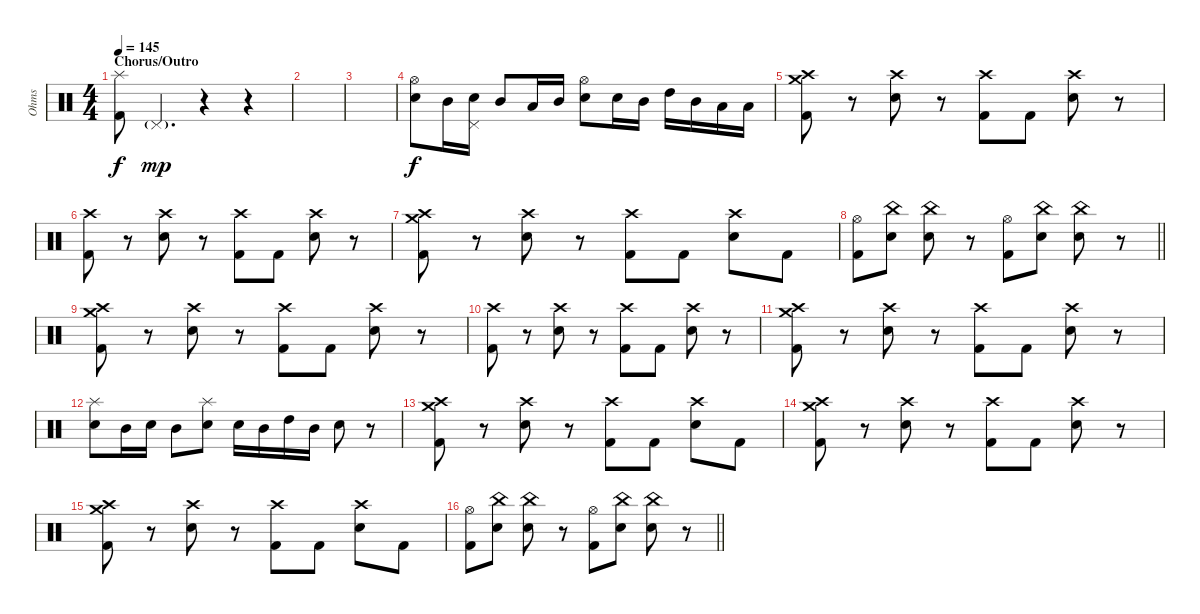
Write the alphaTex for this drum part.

\track ("Ohms" "Ohms") {instrument percussion}
\staff {score}
\articulation defaults
\ts (4 4)
\section ("" "Chorus/Outro")
\tempo 145
\clef neutral
\ks c
("Splash (hit)" "Kick (hit) 2").8{dy f} "Pedal Hi-Hat (hit)"{g}.4{d dy mp} r.4 r.4 |
|
|
("Hi-Hat (open)" "Snare (hit) 2").8{dy f} "Mid Tom (hit)".16 ("Pedal Hi-Hat (hit)" "Snare (hit) 2").16 "Mid Tom (hit)".8 "Low Tom (hit)".16 "Mid Tom (hit)".16 ("Hi-Hat (open)" "Snare (hit) 2").8 "Snare (hit) 2".16 "Mid Tom (hit)".16 "High Tom (hit)".16 "Mid Tom (hit)".16 "Low Tom (hit)".16 "Low Tom (hit)".16 |
("Crash high (hit)" "Crash medium (hit)" "Kick (hit) 2").8 r.8 ("Crash high (hit)" "Snare (hit) 2").8 r.8 ("Crash high (hit)" "Kick (hit) 2").8 "Kick (hit) 2".8 ("Crash high (hit)" "Snare (hit) 2").8 r.8 |
("Crash high (hit)" "Kick (hit) 2").8 r.8 ("Crash high (hit)" "Snare (hit) 2").8 r.8 ("Crash high (hit)" "Kick (hit) 2").8 "Kick (hit) 2".8 ("Crash high (hit)" "Snare (hit) 2").8 r.8 |
("Crash high (hit)" "Crash medium (hit)" "Kick (hit) 2").8 r.8 ("Crash high (hit)" "Snare (hit) 2").8 r.8 ("Crash high (hit)" "Kick (hit) 2").8 "Kick (hit) 2".8 ("Crash high (hit)" "Snare (hit) 2").8 "Kick (hit) 2".8 |
\barLineRight lightlight
("Hi-Hat (open)" "Kick (hit) 2").8 ("China (hit)" "Snare (hit) 2").8 ("China (hit)" "Snare (hit) 2").8 r.8 ("Hi-Hat (open)" "Kick (hit) 2").8 ("China (hit)" "Snare (hit) 2").8 ("China (hit)" "Snare (hit) 2").8 r.8 |
("Crash high (hit)" "Crash medium (hit)" "Kick (hit) 2").8 r.8 ("Crash high (hit)" "Snare (hit) 2").8 r.8 ("Crash high (hit)" "Kick (hit) 2").8 "Kick (hit) 2".8 ("Crash high (hit)" "Snare (hit) 2").8 r.8 |
("Crash high (hit)" "Kick (hit) 2").8 r.8 ("Crash high (hit)" "Snare (hit) 2").8 r.8 ("Crash high (hit)" "Kick (hit) 2").8 "Kick (hit) 2".8 ("Crash high (hit)" "Snare (hit) 2").8 r.8 |
("Crash high (hit)" "Crash medium (hit)" "Kick (hit) 2").8 r.8 ("Crash high (hit)" "Snare (hit) 2").8 r.8 ("Crash high (hit)" "Kick (hit) 2").8 "Kick (hit) 2".8 ("Crash high (hit)" "Snare (hit) 2").8 r.8 |
("Splash (hit)" "Snare (hit) 2").8 "Mid Tom (hit)".16 "Snare (hit) 2".16 "Mid Tom (hit)".8 ("Splash (hit)" "Snare (hit) 2").8 "Snare (hit) 2".16 "Mid Tom (hit)".16 "High Tom (hit)".16 "Mid Tom (hit)".16 "Snare (hit) 2".8 r.8 |
("Crash high (hit)" "Crash medium (hit)" "Kick (hit) 2").8 r.8 ("Crash high (hit)" "Snare (hit) 2").8 r.8 ("Crash high (hit)" "Kick (hit) 2").8 "Kick (hit) 2".8 ("Crash high (hit)" "Snare (hit) 2").8 "Kick (hit) 2".8 |
("Crash high (hit)" "Crash medium (hit)" "Kick (hit) 2").8 r.8 ("Crash high (hit)" "Snare (hit) 2").8 r.8 ("Crash high (hit)" "Kick (hit) 2").8 "Kick (hit) 2".8 ("Crash high (hit)" "Snare (hit) 2").8 r.8 |
("Crash high (hit)" "Crash medium (hit)" "Kick (hit) 2").8 r.8 ("Crash high (hit)" "Snare (hit) 2").8 r.8 ("Crash high (hit)" "Kick (hit) 2").8 "Kick (hit) 2".8 ("Crash high (hit)" "Snare (hit) 2").8 "Kick (hit) 2".8 |
\barLineRight lightlight
("Hi-Hat (open)" "Kick (hit) 2").8 ("China (hit)" "Snare (hit) 2").8 ("China (hit)" "Snare (hit) 2").8 r.8 ("Hi-Hat (open)" "Kick (hit) 2").8 ("China (hit)" "Snare (hit) 2").8 ("China (hit)" "Snare (hit) 2").8 r.8
